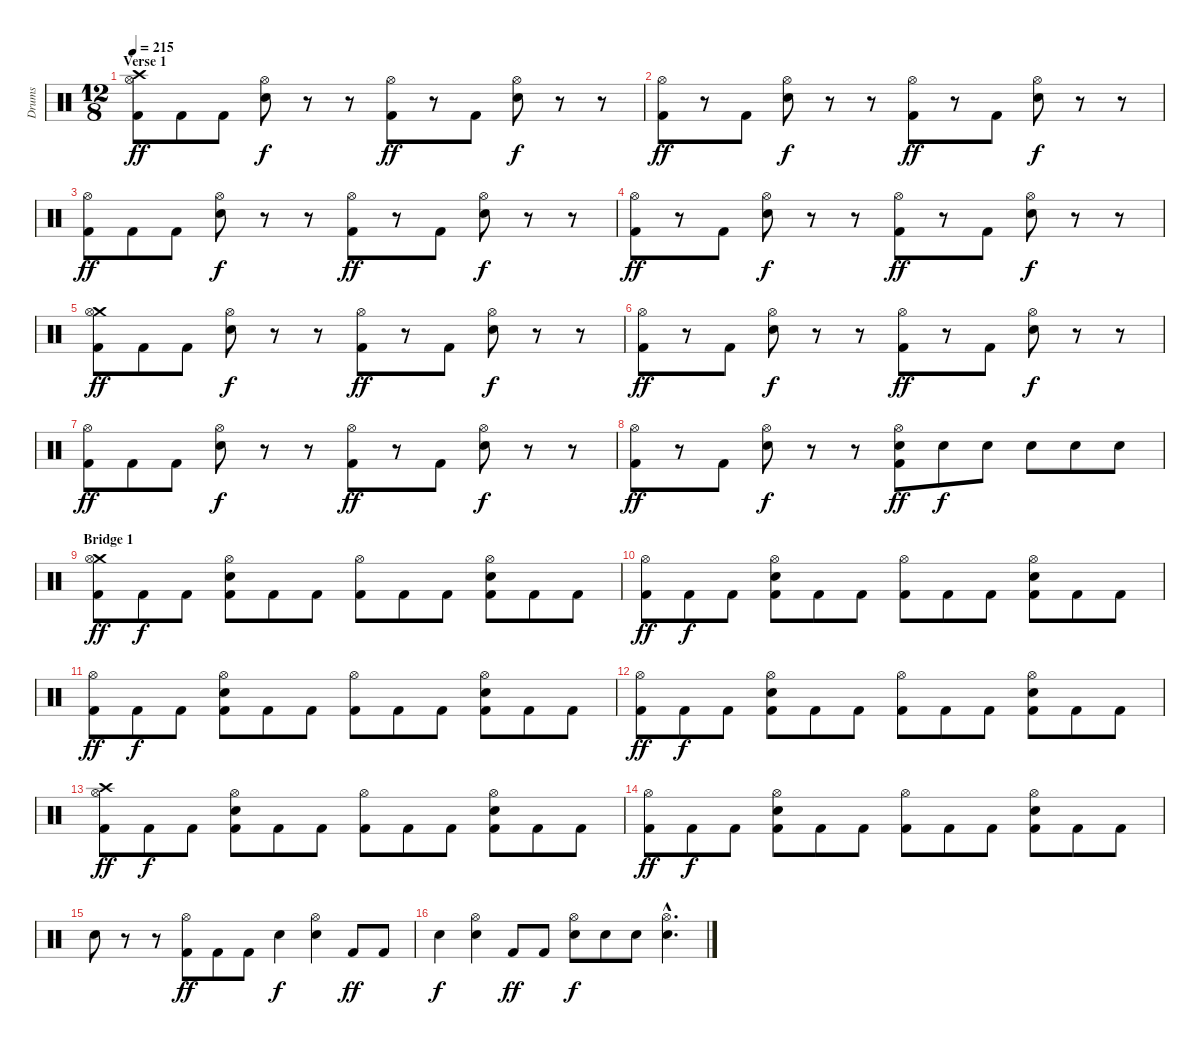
\track ("Drums" "Drums") {instrument percussion}
\staff {score}
\articulation defaults
\ts (12 8)
\section ("" "Verse 1")
\tempo 215
\clef neutral
\ks c
("Crash high (hit)" "Hi-Hat (open)" "Kick (hit) 2").8{dy ff} "Kick (hit) 2".8 "Kick (hit) 2".8 ("Hi-Hat (open)" "Snare (hit) 2").8{dy f} r.8 r.8 ("Hi-Hat (open)" "Kick (hit) 2").8{dy ff} r.8 "Kick (hit) 2".8 ("Hi-Hat (open)" "Snare (hit) 2").8{dy f} r.8 r.8 |
("Hi-Hat (open)" "Kick (hit) 2").8{dy ff} r.8 "Kick (hit) 2".8 ("Hi-Hat (open)" "Snare (hit) 2").8{dy f} r.8 r.8 ("Hi-Hat (open)" "Kick (hit) 2").8{dy ff} r.8 "Kick (hit) 2".8 ("Hi-Hat (open)" "Snare (hit) 2").8{dy f} r.8 r.8 |
("Hi-Hat (open)" "Kick (hit) 2").8{dy ff} "Kick (hit) 2".8 "Kick (hit) 2".8 ("Hi-Hat (open)" "Snare (hit) 2").8{dy f} r.8 r.8 ("Hi-Hat (open)" "Kick (hit) 2").8{dy ff} r.8 "Kick (hit) 2".8 ("Hi-Hat (open)" "Snare (hit) 2").8{dy f} r.8 r.8 |
("Hi-Hat (open)" "Kick (hit) 2").8{dy ff} r.8 "Kick (hit) 2".8 ("Hi-Hat (open)" "Snare (hit) 2").8{dy f} r.8 r.8 ("Hi-Hat (open)" "Kick (hit) 2").8{dy ff} r.8 "Kick (hit) 2".8 ("Hi-Hat (open)" "Snare (hit) 2").8{dy f} r.8 r.8 |
("Crash medium (hit)" "Hi-Hat (open)" "Kick (hit) 2").8{dy ff} "Kick (hit) 2".8 "Kick (hit) 2".8 ("Hi-Hat (open)" "Snare (hit) 2").8{dy f} r.8 r.8 ("Hi-Hat (open)" "Kick (hit) 2").8{dy ff} r.8 "Kick (hit) 2".8 ("Hi-Hat (open)" "Snare (hit) 2").8{dy f} r.8 r.8 |
("Hi-Hat (open)" "Kick (hit) 2").8{dy ff} r.8 "Kick (hit) 2".8 ("Hi-Hat (open)" "Snare (hit) 2").8{dy f} r.8 r.8 ("Hi-Hat (open)" "Kick (hit) 2").8{dy ff} r.8 "Kick (hit) 2".8 ("Hi-Hat (open)" "Snare (hit) 2").8{dy f} r.8 r.8 |
("Hi-Hat (open)" "Kick (hit) 2").8{dy ff} "Kick (hit) 2".8 "Kick (hit) 2".8 ("Hi-Hat (open)" "Snare (hit) 2").8{dy f} r.8 r.8 ("Hi-Hat (open)" "Kick (hit) 2").8{dy ff} r.8 "Kick (hit) 2".8 ("Hi-Hat (open)" "Snare (hit) 2").8{dy f} r.8 r.8 |
("Hi-Hat (open)" "Kick (hit) 2").8{dy ff} r.8 "Kick (hit) 2".8 ("Hi-Hat (open)" "Snare (hit) 2").8{dy f} r.8 r.8 ("Hi-Hat (open)" "Snare (hit) 2" "Kick (hit) 2").8{dy ff} "Snare (hit) 2".8{dy f} "Snare (hit) 2".8 "Snare (hit) 2".8 "Snare (hit) 2".8 "Snare (hit) 2".8 |
\section ("" "Bridge 1")
("Crash medium (hit)" "Hi-Hat (open)" "Kick (hit) 2").8{dy ff} "Kick (hit) 2".8{dy f} "Kick (hit) 2".8 ("Hi-Hat (open)" "Snare (hit) 2" "Kick (hit) 2").8 "Kick (hit) 2".8 "Kick (hit) 2".8 ("Hi-Hat (open)" "Kick (hit) 2").8 "Kick (hit) 2".8 "Kick (hit) 2".8 ("Hi-Hat (open)" "Snare (hit) 2" "Kick (hit) 2").8 "Kick (hit) 2".8 "Kick (hit) 2".8 |
("Hi-Hat (open)" "Kick (hit) 2").8{dy ff} "Kick (hit) 2".8{dy f} "Kick (hit) 2".8 ("Hi-Hat (open)" "Snare (hit) 2" "Kick (hit) 2").8 "Kick (hit) 2".8 "Kick (hit) 2".8 ("Hi-Hat (open)" "Kick (hit) 2").8 "Kick (hit) 2".8 "Kick (hit) 2".8 ("Hi-Hat (open)" "Snare (hit) 2" "Kick (hit) 2").8 "Kick (hit) 2".8 "Kick (hit) 2".8 |
("Hi-Hat (open)" "Kick (hit) 2").8{dy ff} "Kick (hit) 2".8{dy f} "Kick (hit) 2".8 ("Hi-Hat (open)" "Snare (hit) 2" "Kick (hit) 2").8 "Kick (hit) 2".8 "Kick (hit) 2".8 ("Hi-Hat (open)" "Kick (hit) 2").8 "Kick (hit) 2".8 "Kick (hit) 2".8 ("Hi-Hat (open)" "Snare (hit) 2" "Kick (hit) 2").8 "Kick (hit) 2".8 "Kick (hit) 2".8 |
("Hi-Hat (open)" "Kick (hit) 2").8{dy ff} "Kick (hit) 2".8{dy f} "Kick (hit) 2".8 ("Hi-Hat (open)" "Snare (hit) 2" "Kick (hit) 2").8 "Kick (hit) 2".8 "Kick (hit) 2".8 ("Hi-Hat (open)" "Kick (hit) 2").8 "Kick (hit) 2".8 "Kick (hit) 2".8 ("Hi-Hat (open)" "Snare (hit) 2" "Kick (hit) 2").8 "Kick (hit) 2".8 "Kick (hit) 2".8 |
("Crash high (hit)" "Hi-Hat (open)" "Kick (hit) 2").8{dy ff} "Kick (hit) 2".8{dy f} "Kick (hit) 2".8 ("Hi-Hat (open)" "Snare (hit) 2" "Kick (hit) 2").8 "Kick (hit) 2".8 "Kick (hit) 2".8 ("Hi-Hat (open)" "Kick (hit) 2").8 "Kick (hit) 2".8 "Kick (hit) 2".8 ("Hi-Hat (open)" "Snare (hit) 2" "Kick (hit) 2").8 "Kick (hit) 2".8 "Kick (hit) 2".8 |
("Hi-Hat (open)" "Kick (hit) 2").8{dy ff} "Kick (hit) 2".8{dy f} "Kick (hit) 2".8 ("Hi-Hat (open)" "Snare (hit) 2" "Kick (hit) 2").8 "Kick (hit) 2".8 "Kick (hit) 2".8 ("Hi-Hat (open)" "Kick (hit) 2").8 "Kick (hit) 2".8 "Kick (hit) 2".8 ("Hi-Hat (open)" "Snare (hit) 2" "Kick (hit) 2").8 "Kick (hit) 2".8 "Kick (hit) 2".8 |
"Snare (hit) 2".8 r.8 r.8 ("Hi-Hat (open)" "Kick (hit) 2").8{dy ff} "Kick (hit) 2".8 "Kick (hit) 2".8 "Snare (hit) 2".4{dy f} ("Hi-Hat (open)" "Snare (hit) 2").4 "Kick (hit) 2".8{dy ff} "Kick (hit) 2".8 |
"Snare (hit) 2".4{dy f} ("Hi-Hat (open)" "Snare (hit) 2").4 "Kick (hit) 2".8{dy ff} "Kick (hit) 2".8 ("Hi-Hat (open)" "Snare (hit) 2").8{dy f} "Snare (hit) 2".8 "Snare (hit) 2".8 ("Hi-Hat (open)"{hac} "Snare (hit) 2"{hac}).4{d}
